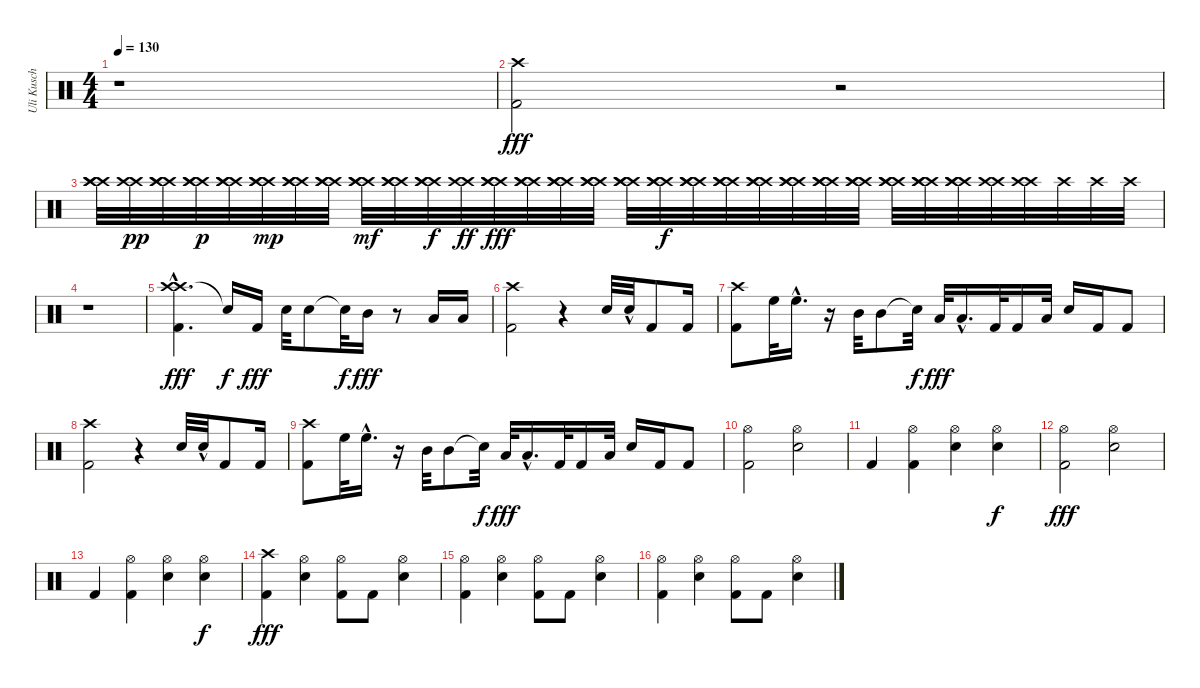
\track ("Uli Kusch" "Uli Kusch") {instrument percussion}
\staff {score}
\articulation defaults
\ts (4 4)
\tempo 130
\clef neutral
\ks c
r.1{dy fff} |
("Kick (hit) 2" "Crash high (hit)").2 r.2 |
("Crash high (hit)" "Crash high (hit)" "Crash high (hit)").32 ("Crash high (hit)" "Crash high (hit)").32{dy pp} ("Crash high (hit)" "Crash high (hit)" "Crash high (hit)").32 ("Crash high (hit)" "Crash high (hit)" "Crash high (hit)").32{dy p} ("Crash high (hit)" "Crash high (hit)" "Crash high (hit)").32 ("Crash high (hit)" "Crash high (hit)" "Crash high (hit)").32{dy mp} ("Crash high (hit)" "Crash high (hit)" "Crash high (hit)").32 ("Crash high (hit)" "Crash high (hit)" "Crash high (hit)").32 ("Crash high (hit)" "Crash high (hit)" "Crash high (hit)").32{dy mf} ("Crash high (hit)" "Crash high (hit)" "Crash high (hit)").32 ("Crash high (hit)" "Crash high (hit)" "Crash high (hit)").32{dy f} ("Crash high (hit)" "Crash high (hit)").32{dy ff} ("Crash high (hit)" "Crash high (hit)" "Crash high (hit)").32{dy fff} ("Crash high (hit)" "Crash high (hit)" "Crash high (hit)").32 ("Crash high (hit)" "Crash high (hit)" "Crash high (hit)").32 ("Crash high (hit)" "Crash high (hit)" "Crash high (hit)").32 ("Crash high (hit)" "Crash high (hit)" "Crash high (hit)").32 ("Crash high (hit)" "Crash high (hit)" "Crash high (hit)").32{dy f} ("Crash high (hit)" "Crash high (hit)" "Crash high (hit)").32 ("Crash high (hit)" "Crash high (hit)" "Crash high (hit)").32 ("Crash high (hit)" "Crash high (hit)" "Crash high (hit)").32 ("Crash high (hit)" "Crash high (hit)" "Crash high (hit)").32 ("Crash high (hit)" "Crash high (hit)" "Crash high (hit)").32 ("Crash high (hit)" "Crash high (hit)" "Crash high (hit)").32 ("Crash high (hit)" "Crash high (hit)" "Crash high (hit)").32 ("Crash high (hit)" "Crash high (hit)" "Crash high (hit)").32 ("Crash high (hit)" "Crash high (hit)" "Crash high (hit)").32 ("Crash high (hit)" "Crash high (hit)").32 ("Crash high (hit)" "Crash high (hit)").32 "Crash high (hit)".32 "Crash high (hit)".32 "Crash high (hit)".32 |
r.1 |
("Crash high (hit)" "Kick (hit) 2" "Crash high (hit)"{hac}).4{d dy fff} "Snare (hit)"{t}.16{dy f} "Kick (hit) 2".16{dy fff} "Electric Snare (hit)".32 "Electric Snare (hit)".8 "Snare (hit)"{t}.32{dy f} "Mid Tom (hit)".16{dy fff} r.8 "Low Tom (hit)".16 "Low Tom (hit)".16 |
("Kick (hit) 2" "Crash high (hit)").2 r.4 "Electric Snare (hit)".32 "Electric Snare (hit)"{hac}.32 "Kick (hit) 2".8 "Kick (hit) 2".16 |
("Kick (hit) 2" "Crash high (hit)").8 "High Floor Tom (hit)".32 "High Floor Tom (hit)"{hac}.16{d} r.16 "Mid Tom (hit)".32 "Mid Tom (hit)".8 "Snare (hit)"{t}.32{dy f} "Low Tom (hit)".32{dy fff} "Low Tom (hit)"{hac}.16{d} "Kick (hit) 2".32 "Kick (hit) 2".16 "Low Floor Tom (hit)".32 "Electric Snare (hit)".16 "Kick (hit) 2".16 "Kick (hit) 2".8 |
("Kick (hit) 2" "Crash high (hit)").2 r.4 "Electric Snare (hit)".32 "Electric Snare (hit)"{hac}.32 "Kick (hit) 2".8 "Kick (hit) 2".16 |
("Kick (hit) 2" "Crash high (hit)").8 "High Floor Tom (hit)".32 "High Floor Tom (hit)"{hac}.16{d} r.16 "Mid Tom (hit)".32 "Mid Tom (hit)".8 "Snare (hit)"{t}.32{dy f} "Low Tom (hit)".32{dy fff} "Low Tom (hit)"{hac}.16{d} "Kick (hit) 2".32 "Kick (hit) 2".16 "Low Floor Tom (hit)".32 "Electric Snare (hit)".16 "Kick (hit) 2".16 "Kick (hit) 2".8 |
("Hi-Hat (open)" "Kick (hit) 2").2 ("Electric Snare (hit)" "Hi-Hat (open)").2 |
"Kick (hit) 2".4 ("Kick (hit) 2" "Hi-Hat (open)").4 ("Electric Snare (hit)" "Hi-Hat (open)").4 ("Electric Snare (hit)" "Hi-Hat (open)").4{dy f} |
("Hi-Hat (open)" "Kick (hit) 2").2{dy fff} ("Electric Snare (hit)" "Hi-Hat (open)").2 |
"Kick (hit) 2".4 ("Kick (hit) 2" "Hi-Hat (open)").4 ("Electric Snare (hit)" "Hi-Hat (open)").4 ("Electric Snare (hit)" "Hi-Hat (open)").4{dy f} |
("Kick (hit) 2" "Crash high (hit)").4{dy fff} ("Electric Snare (hit)" "Hi-Hat (open)").4 ("Kick (hit) 2" "Hi-Hat (open)").8 "Kick (hit) 2".8 ("Electric Snare (hit)" "Hi-Hat (open)").4 |
("Hi-Hat (open)" "Kick (hit) 2").4 ("Electric Snare (hit)" "Hi-Hat (open)").4 ("Kick (hit) 2" "Hi-Hat (open)").8 "Kick (hit) 2".8 ("Electric Snare (hit)" "Hi-Hat (open)").4 |
("Hi-Hat (open)" "Kick (hit) 2").4 ("Electric Snare (hit)" "Hi-Hat (open)").4 ("Kick (hit) 2" "Hi-Hat (open)").8 "Kick (hit) 2".8 ("Electric Snare (hit)" "Hi-Hat (open)").4
